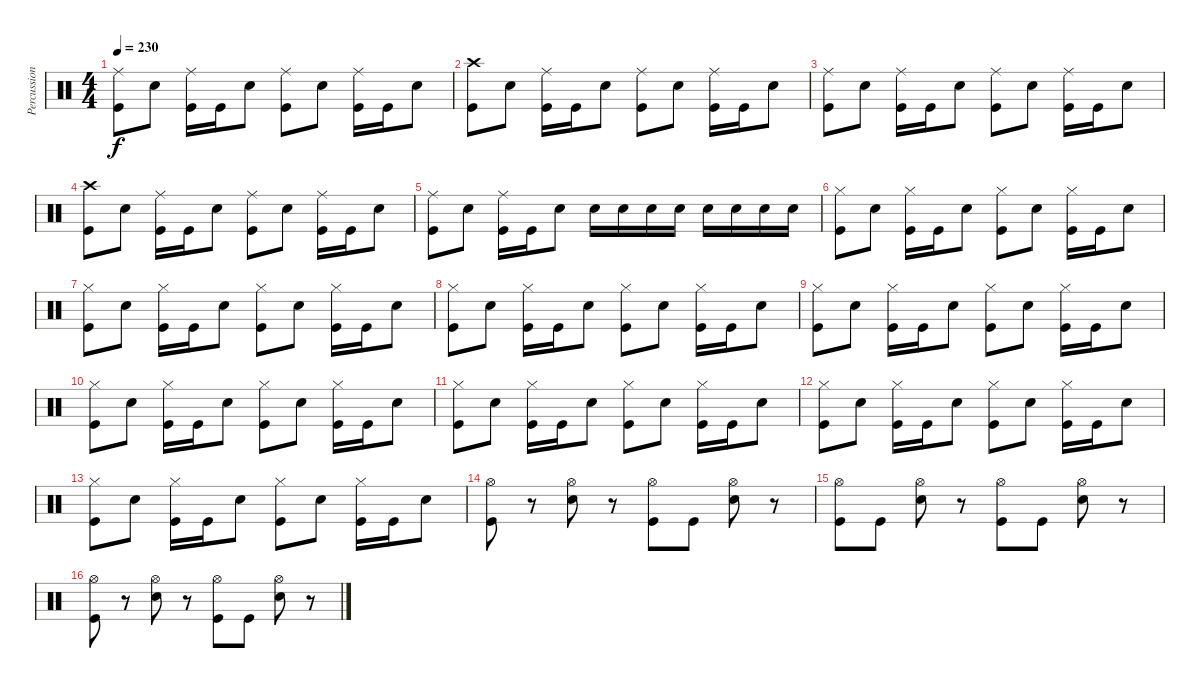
\track ("Percussions" "Percussion") {instrument percussion}
\staff {score}
\articulation defaults
\ts (4 4)
\tempo 230
\clef neutral
\ks c
("Ride (middle)" "Kick (hit)").8{dy f} "Electric Snare (hit)".8 ("Ride (middle)" "Kick (hit)").16 "Kick (hit)".16 "Electric Snare (hit)".8 ("Ride (middle)" "Kick (hit)").8 "Electric Snare (hit)".8 ("Ride (middle)" "Kick (hit)").16 "Kick (hit)".16 "Electric Snare (hit)".8 |
("Crash high (hit)" "Kick (hit)").8 "Electric Snare (hit)".8 ("Ride (middle)" "Kick (hit)").16 "Kick (hit)".16 "Electric Snare (hit)".8 ("Ride (middle)" "Kick (hit)").8 "Electric Snare (hit)".8 ("Ride (middle)" "Kick (hit)").16 "Kick (hit)".16 "Electric Snare (hit)".8 |
("Ride (middle)" "Kick (hit)").8 "Electric Snare (hit)".8 ("Ride (middle)" "Kick (hit)").16 "Kick (hit)".16 "Electric Snare (hit)".8 ("Ride (middle)" "Kick (hit)").8 "Electric Snare (hit)".8 ("Ride (middle)" "Kick (hit)").16 "Kick (hit)".16 "Electric Snare (hit)".8 |
("Crash high (hit)" "Kick (hit)").8 "Electric Snare (hit)".8 ("Ride (middle)" "Kick (hit)").16 "Kick (hit)".16 "Electric Snare (hit)".8 ("Ride (middle)" "Kick (hit)").8 "Electric Snare (hit)".8 ("Ride (middle)" "Kick (hit)").16 "Kick (hit)".16 "Electric Snare (hit)".8 |
("Ride (middle)" "Kick (hit)").8 "Electric Snare (hit)".8 ("Ride (middle)" "Kick (hit)").16 "Kick (hit)".16 "Electric Snare (hit)".8 "Electric Snare (hit)".16 "Electric Snare (hit)".16 "Electric Snare (hit)".16 "Electric Snare (hit)".16 "Electric Snare (hit)".16 "Electric Snare (hit)".16 "Electric Snare (hit)".16 "Electric Snare (hit)".16 |
("Hi-Hat (closed)" "Kick (hit)").8 "Electric Snare (hit)".8 ("Hi-Hat (closed)" "Kick (hit)").16 "Kick (hit)".16 "Electric Snare (hit)".8 ("Hi-Hat (closed)" "Kick (hit)").8 "Electric Snare (hit)".8 ("Hi-Hat (closed)" "Kick (hit)").16 "Kick (hit)".16 "Electric Snare (hit)".8 |
("Hi-Hat (closed)" "Kick (hit)").8 "Electric Snare (hit)".8 ("Hi-Hat (closed)" "Kick (hit)").16 "Kick (hit)".16 "Electric Snare (hit)".8 ("Hi-Hat (closed)" "Kick (hit)").8 "Electric Snare (hit)".8 ("Hi-Hat (closed)" "Kick (hit)").16 "Kick (hit)".16 "Electric Snare (hit)".8 |
("Hi-Hat (closed)" "Kick (hit)").8 "Electric Snare (hit)".8 ("Hi-Hat (closed)" "Kick (hit)").16 "Kick (hit)".16 "Electric Snare (hit)".8 ("Hi-Hat (closed)" "Kick (hit)").8 "Electric Snare (hit)".8 ("Hi-Hat (closed)" "Kick (hit)").16 "Kick (hit)".16 "Electric Snare (hit)".8 |
("Hi-Hat (closed)" "Kick (hit)").8 "Electric Snare (hit)".8 ("Hi-Hat (closed)" "Kick (hit)").16 "Kick (hit)".16 "Electric Snare (hit)".8 ("Hi-Hat (closed)" "Kick (hit)").8 "Electric Snare (hit)".8 ("Hi-Hat (closed)" "Kick (hit)").16 "Kick (hit)".16 "Electric Snare (hit)".8 |
("Hi-Hat (closed)" "Kick (hit)").8 "Electric Snare (hit)".8 ("Hi-Hat (closed)" "Kick (hit)").16 "Kick (hit)".16 "Electric Snare (hit)".8 ("Hi-Hat (closed)" "Kick (hit)").8 "Electric Snare (hit)".8 ("Hi-Hat (closed)" "Kick (hit)").16 "Kick (hit)".16 "Electric Snare (hit)".8 |
("Hi-Hat (closed)" "Kick (hit)").8 "Electric Snare (hit)".8 ("Hi-Hat (closed)" "Kick (hit)").16 "Kick (hit)".16 "Electric Snare (hit)".8 ("Hi-Hat (closed)" "Kick (hit)").8 "Electric Snare (hit)".8 ("Hi-Hat (closed)" "Kick (hit)").16 "Kick (hit)".16 "Electric Snare (hit)".8 |
("Hi-Hat (closed)" "Kick (hit)").8 "Electric Snare (hit)".8 ("Hi-Hat (closed)" "Kick (hit)").16 "Kick (hit)".16 "Electric Snare (hit)".8 ("Hi-Hat (closed)" "Kick (hit)").8 "Electric Snare (hit)".8 ("Hi-Hat (closed)" "Kick (hit)").16 "Kick (hit)".16 "Electric Snare (hit)".8 |
("Hi-Hat (closed)" "Kick (hit)").8 "Electric Snare (hit)".8 ("Hi-Hat (closed)" "Kick (hit)").16 "Kick (hit)".16 "Electric Snare (hit)".8 ("Hi-Hat (closed)" "Kick (hit)").8 "Electric Snare (hit)".8 ("Hi-Hat (closed)" "Kick (hit)").16 "Kick (hit)".16 "Electric Snare (hit)".8 |
("Hi-Hat (open)" "Kick (hit)").8 r.8 ("Hi-Hat (open)" "Electric Snare (hit)").8 r.8 ("Hi-Hat (open)" "Kick (hit)").8 "Kick (hit)".8 ("Hi-Hat (open)" "Electric Snare (hit)").8 r.8 |
("Hi-Hat (open)" "Kick (hit)").8 "Kick (hit)".8 ("Hi-Hat (open)" "Electric Snare (hit)").8 r.8 ("Hi-Hat (open)" "Kick (hit)").8 "Kick (hit)".8 ("Hi-Hat (open)" "Electric Snare (hit)").8 r.8 |
("Hi-Hat (open)" "Kick (hit)").8 r.8 ("Hi-Hat (open)" "Electric Snare (hit)").8 r.8 ("Hi-Hat (open)" "Kick (hit)").8 "Kick (hit)".8 ("Hi-Hat (open)" "Electric Snare (hit)").8 r.8
